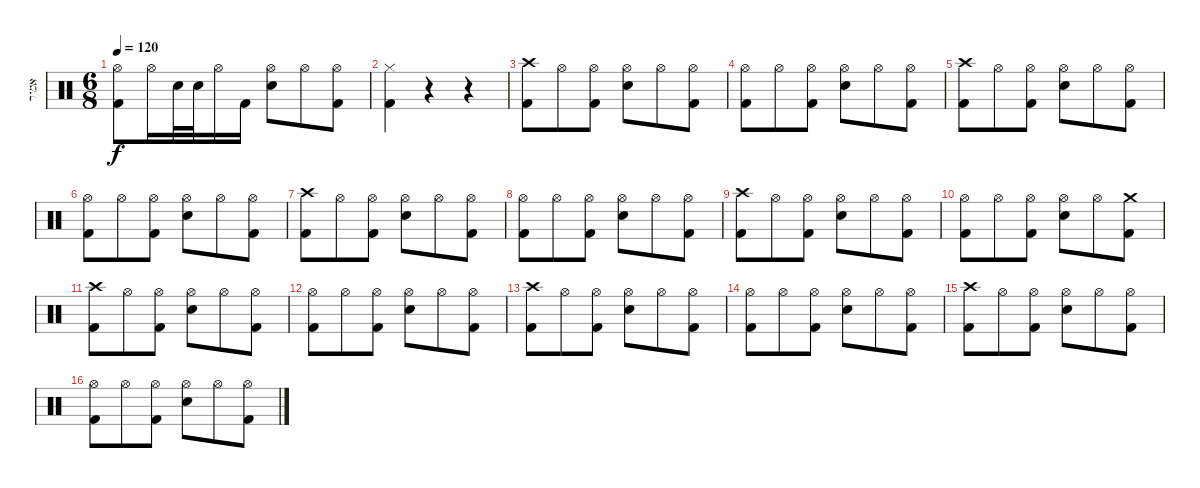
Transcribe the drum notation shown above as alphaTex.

\track ("אמיר" "אמיר") {instrument percussion}
\staff {score}
\articulation defaults
\ts (6 8)
\tempo 120
\clef neutral
\ks c
("Hi-Hat (open)" "Kick (hit) 2").8{dy f} "Hi-Hat (open)".16 "Snare (hit) 2".32 "Snare (hit) 2".32 "Hi-Hat (open)".16 "Kick (hit) 2".16 ("Hi-Hat (open)" "Snare (hit) 2").8 "Hi-Hat (open)".8 ("Hi-Hat (open)" "Kick (hit) 2").8 |
("Hi-Hat (closed)" "Kick (hit) 2").4 r.4 r.4 |
("Crash high (hit)" "Kick (hit) 2").8 "Hi-Hat (open)".8 ("Hi-Hat (open)" "Kick (hit) 2").8 ("Hi-Hat (open)" "Snare (hit) 2").8 "Hi-Hat (open)".8 ("Hi-Hat (open)" "Kick (hit) 2").8 |
("Hi-Hat (open)" "Kick (hit) 2").8 "Hi-Hat (open)".8 ("Hi-Hat (open)" "Kick (hit) 2").8 ("Hi-Hat (open)" "Snare (hit) 2").8 "Hi-Hat (open)".8 ("Hi-Hat (open)" "Kick (hit) 2").8 |
("Crash high (hit)" "Kick (hit) 2").8 "Hi-Hat (open)".8 ("Hi-Hat (open)" "Kick (hit) 2").8 ("Hi-Hat (open)" "Snare (hit) 2").8 "Hi-Hat (open)".8 ("Hi-Hat (open)" "Kick (hit) 2").8 |
("Hi-Hat (open)" "Kick (hit) 2").8 "Hi-Hat (open)".8 ("Hi-Hat (open)" "Kick (hit) 2").8 ("Hi-Hat (open)" "Snare (hit) 2").8 "Hi-Hat (open)".8 ("Hi-Hat (open)" "Kick (hit) 2").8 |
("Crash high (hit)" "Kick (hit) 2").8 "Hi-Hat (open)".8 ("Hi-Hat (open)" "Kick (hit) 2").8 ("Hi-Hat (open)" "Snare (hit) 2").8 "Hi-Hat (open)".8 ("Hi-Hat (open)" "Kick (hit) 2").8 |
("Hi-Hat (open)" "Kick (hit) 2").8 "Hi-Hat (open)".8 ("Hi-Hat (open)" "Kick (hit) 2").8 ("Hi-Hat (open)" "Snare (hit) 2").8 "Hi-Hat (open)".8 ("Hi-Hat (open)" "Kick (hit) 2").8 |
("Crash high (hit)" "Kick (hit) 2").8 "Hi-Hat (open)".8 ("Hi-Hat (open)" "Kick (hit) 2").8 ("Hi-Hat (open)" "Snare (hit) 2").8 "Hi-Hat (open)".8 ("Hi-Hat (open)" "Kick (hit) 2").8 |
("Hi-Hat (open)" "Kick (hit) 2").8 "Hi-Hat (open)".8 ("Hi-Hat (open)" "Kick (hit) 2").8 ("Hi-Hat (open)" "Snare (hit) 2").8 "Hi-Hat (open)".8 ("Crash medium (hit)" "Kick (hit) 2").8 |
("Crash high (hit)" "Kick (hit) 2").8 "Hi-Hat (open)".8 ("Hi-Hat (open)" "Kick (hit) 2").8 ("Hi-Hat (open)" "Snare (hit) 2").8 "Hi-Hat (open)".8 ("Hi-Hat (open)" "Kick (hit) 2").8 |
("Hi-Hat (open)" "Kick (hit) 2").8 "Hi-Hat (open)".8 ("Hi-Hat (open)" "Kick (hit) 2").8 ("Hi-Hat (open)" "Snare (hit) 2").8 "Hi-Hat (open)".8 ("Hi-Hat (open)" "Kick (hit) 2").8 |
("Crash high (hit)" "Kick (hit) 2").8 "Hi-Hat (open)".8 ("Hi-Hat (open)" "Kick (hit) 2").8 ("Hi-Hat (open)" "Snare (hit) 2").8 "Hi-Hat (open)".8 ("Hi-Hat (open)" "Kick (hit) 2").8 |
("Hi-Hat (open)" "Kick (hit) 2").8 "Hi-Hat (open)".8 ("Hi-Hat (open)" "Kick (hit) 2").8 ("Hi-Hat (open)" "Snare (hit) 2").8 "Hi-Hat (open)".8 ("Hi-Hat (open)" "Kick (hit) 2").8 |
("Crash high (hit)" "Kick (hit) 2").8 "Hi-Hat (open)".8 ("Hi-Hat (open)" "Kick (hit) 2").8 ("Hi-Hat (open)" "Snare (hit) 2").8 "Hi-Hat (open)".8 ("Hi-Hat (open)" "Kick (hit) 2").8 |
("Hi-Hat (open)" "Kick (hit) 2").8 "Hi-Hat (open)".8 ("Hi-Hat (open)" "Kick (hit) 2").8 ("Hi-Hat (open)" "Snare (hit) 2").8 "Hi-Hat (open)".8 ("Hi-Hat (open)" "Kick (hit) 2").8
